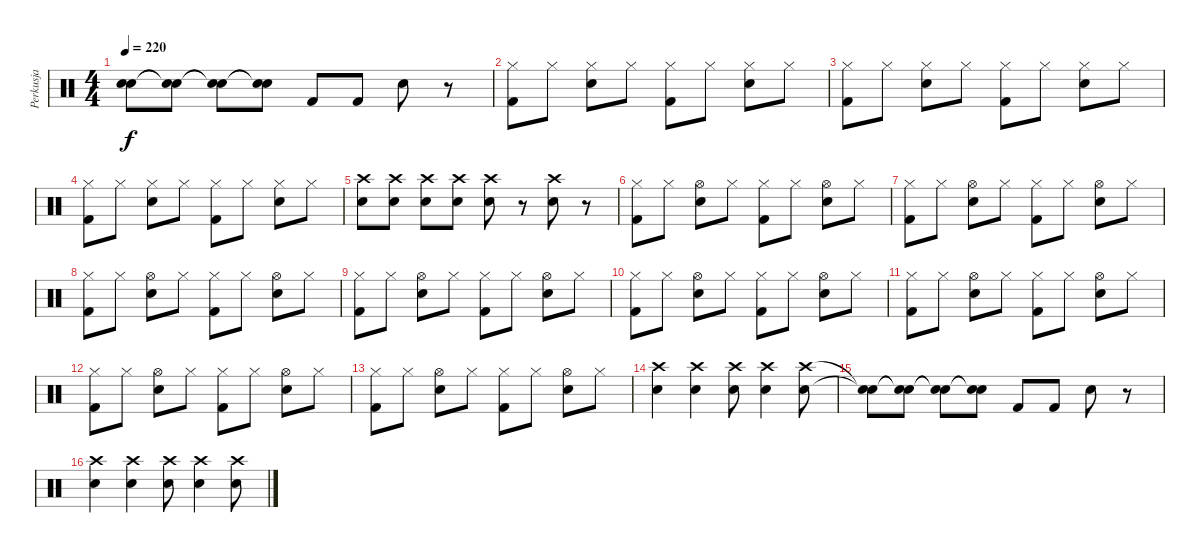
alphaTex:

\track ("Perkusja" "Perkusja") {instrument percussion}
\staff {score}
\articulation defaults
\ts (4 4)
\tempo 220
\clef neutral
\ks c
("Snare (hit)"{t} "Snare (hit)"{t}).8{dy f} ("Snare (hit)"{t} "Snare (hit)"{t}).8 ("Snare (hit)"{t} "Snare (hit)"{t}).8 ("Snare (hit)"{t} "Snare (hit)"{t}).8 "Kick (hit) 2".8 "Kick (hit) 2".8 "Snare (hit) 2".8 r.8 |
("Hi-Hat (closed)" "Kick (hit) 2").8 "Hi-Hat (closed)".8 ("Hi-Hat (closed)" "Snare (hit) 2").8 "Hi-Hat (closed)".8 ("Hi-Hat (closed)" "Kick (hit) 2").8 "Hi-Hat (closed)".8 ("Hi-Hat (closed)" "Snare (hit) 2").8 "Hi-Hat (closed)".8 |
("Hi-Hat (closed)" "Kick (hit) 2").8 "Hi-Hat (closed)".8 ("Hi-Hat (closed)" "Snare (hit) 2").8 "Hi-Hat (closed)".8 ("Hi-Hat (closed)" "Kick (hit) 2").8 "Hi-Hat (closed)".8 ("Hi-Hat (closed)" "Snare (hit) 2").8 "Hi-Hat (closed)".8 |
("Hi-Hat (closed)" "Kick (hit) 2").8 "Hi-Hat (closed)".8 ("Hi-Hat (closed)" "Snare (hit) 2").8 "Hi-Hat (closed)".8 ("Hi-Hat (closed)" "Kick (hit) 2").8 "Hi-Hat (closed)".8 ("Hi-Hat (closed)" "Snare (hit) 2").8 "Hi-Hat (closed)".8 |
("Crash high (hit)" "Snare (hit) 2").8 ("Crash high (hit)" "Snare (hit) 2").8 ("Crash high (hit)" "Snare (hit) 2").8 ("Crash high (hit)" "Snare (hit) 2").8 ("Crash high (hit)" "Snare (hit) 2").8 r.8 ("Crash high (hit)" "Snare (hit) 2").8 r.8 |
("Hi-Hat (closed)" "Kick (hit) 2").8 "Hi-Hat (closed)".8 ("Hi-Hat (open)" "Snare (hit) 2").8 "Hi-Hat (closed)".8 ("Hi-Hat (closed)" "Kick (hit) 2").8 "Hi-Hat (closed)".8 ("Hi-Hat (open)" "Snare (hit) 2").8 "Hi-Hat (closed)".8 |
("Hi-Hat (closed)" "Kick (hit) 2").8 "Hi-Hat (closed)".8 ("Hi-Hat (open)" "Snare (hit) 2").8 "Hi-Hat (closed)".8 ("Hi-Hat (closed)" "Kick (hit) 2").8 "Hi-Hat (closed)".8 ("Hi-Hat (open)" "Snare (hit) 2").8 "Hi-Hat (closed)".8 |
("Hi-Hat (closed)" "Kick (hit) 2").8 "Hi-Hat (closed)".8 ("Hi-Hat (open)" "Snare (hit) 2").8 "Hi-Hat (closed)".8 ("Hi-Hat (closed)" "Kick (hit) 2").8 "Hi-Hat (closed)".8 ("Hi-Hat (open)" "Snare (hit) 2").8 "Hi-Hat (closed)".8 |
("Hi-Hat (closed)" "Kick (hit) 2").8 "Hi-Hat (closed)".8 ("Hi-Hat (open)" "Snare (hit) 2").8 "Hi-Hat (closed)".8 ("Hi-Hat (closed)" "Kick (hit) 2").8 "Hi-Hat (closed)".8 ("Hi-Hat (open)" "Snare (hit) 2").8 "Hi-Hat (closed)".8 |
("Hi-Hat (closed)" "Kick (hit) 2").8 "Hi-Hat (closed)".8 ("Hi-Hat (open)" "Snare (hit) 2").8 "Hi-Hat (closed)".8 ("Hi-Hat (closed)" "Kick (hit) 2").8 "Hi-Hat (closed)".8 ("Hi-Hat (open)" "Snare (hit) 2").8 "Hi-Hat (closed)".8 |
("Hi-Hat (closed)" "Kick (hit) 2").8 "Hi-Hat (closed)".8 ("Hi-Hat (open)" "Snare (hit) 2").8 "Hi-Hat (closed)".8 ("Hi-Hat (closed)" "Kick (hit) 2").8 "Hi-Hat (closed)".8 ("Hi-Hat (open)" "Snare (hit) 2").8 "Hi-Hat (closed)".8 |
("Hi-Hat (closed)" "Kick (hit) 2").8 "Hi-Hat (closed)".8 ("Hi-Hat (open)" "Snare (hit) 2").8 "Hi-Hat (closed)".8 ("Hi-Hat (closed)" "Kick (hit) 2").8 "Hi-Hat (closed)".8 ("Hi-Hat (open)" "Snare (hit) 2").8 "Hi-Hat (closed)".8 |
("Hi-Hat (closed)" "Kick (hit) 2").8 "Hi-Hat (closed)".8 ("Hi-Hat (open)" "Snare (hit) 2").8 "Hi-Hat (closed)".8 ("Hi-Hat (closed)" "Kick (hit) 2").8 "Hi-Hat (closed)".8 ("Hi-Hat (open)" "Snare (hit) 2").8 "Hi-Hat (closed)".8 |
("Crash high (hit)" "Snare (hit) 2").4 ("Crash high (hit)" "Snare (hit) 2").4 ("Crash high (hit)" "Snare (hit) 2").8 ("Crash high (hit)" "Snare (hit) 2").4 ("Crash high (hit)" "Snare (hit) 2").8 |
("Snare (hit)"{t} "Snare (hit)"{t}).8 ("Snare (hit)"{t} "Snare (hit)"{t}).8 ("Snare (hit)"{t} "Snare (hit)"{t}).8 ("Snare (hit)"{t} "Snare (hit)"{t}).8 "Kick (hit) 2".8 "Kick (hit) 2".8 "Snare (hit) 2".8 r.8 |
("Crash high (hit)" "Snare (hit) 2").4 ("Crash high (hit)" "Snare (hit) 2").4 ("Crash high (hit)" "Snare (hit) 2").8 ("Crash high (hit)" "Snare (hit) 2").4 ("Crash high (hit)" "Snare (hit) 2").8
